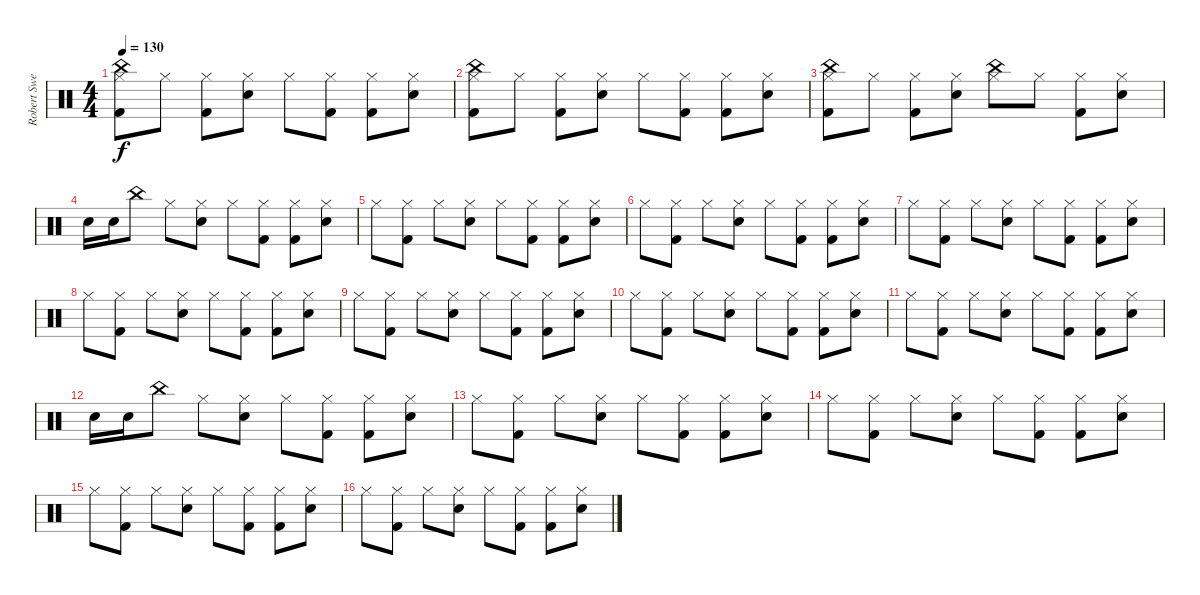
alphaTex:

\track ("Robert Sweet" "Robert Swe") {instrument percussion}
\staff {score}
\articulation defaults
\ts (4 4)
\tempo 130
\clef neutral
\ks c
("Hi-Hat (closed)" "Kick (hit) 2" "China (hit)").8{dy f} "Hi-Hat (closed)".8 ("Hi-Hat (closed)" "Kick (hit) 2").8 ("Hi-Hat (closed)" "Snare (hit) 2").8 "Hi-Hat (closed)".8 ("Hi-Hat (closed)" "Kick (hit) 2").8 ("Hi-Hat (closed)" "Kick (hit) 2").8 ("Hi-Hat (closed)" "Snare (hit) 2").8 |
("Hi-Hat (closed)" "Kick (hit) 2" "China (hit)").8 "Hi-Hat (closed)".8 ("Hi-Hat (closed)" "Kick (hit) 2").8 ("Hi-Hat (closed)" "Snare (hit) 2").8 "Hi-Hat (closed)".8 ("Hi-Hat (closed)" "Kick (hit) 2").8 ("Hi-Hat (closed)" "Kick (hit) 2").8 ("Hi-Hat (closed)" "Snare (hit) 2").8 |
("Hi-Hat (closed)" "Kick (hit) 2" "China (hit)").8 "Hi-Hat (closed)".8 ("Hi-Hat (closed)" "Kick (hit) 2").8 ("Hi-Hat (closed)" "Snare (hit) 2").8 ("Hi-Hat (closed)" "China (hit)").8 "Hi-Hat (closed)".8 ("Hi-Hat (closed)" "Kick (hit) 2").8 ("Hi-Hat (closed)" "Snare (hit) 2").8 |
"Snare (hit) 2".16 "Snare (hit) 2".16 "China (hit)".8 "Hi-Hat (closed)".8 ("Hi-Hat (closed)" "Snare (hit) 2").8 "Hi-Hat (closed)".8 ("Hi-Hat (closed)" "Kick (hit) 2").8 ("Hi-Hat (closed)" "Kick (hit) 2").8 ("Hi-Hat (closed)" "Snare (hit) 2").8 |
"Hi-Hat (closed)".8 ("Hi-Hat (closed)" "Kick (hit) 2").8 "Hi-Hat (closed)".8 ("Hi-Hat (closed)" "Snare (hit) 2").8 "Hi-Hat (closed)".8 ("Hi-Hat (closed)" "Kick (hit) 2").8 ("Hi-Hat (closed)" "Kick (hit) 2").8 ("Hi-Hat (closed)" "Snare (hit) 2").8 |
"Hi-Hat (closed)".8 ("Hi-Hat (closed)" "Kick (hit) 2").8 "Hi-Hat (closed)".8 ("Hi-Hat (closed)" "Snare (hit) 2").8 "Hi-Hat (closed)".8 ("Hi-Hat (closed)" "Kick (hit) 2").8 ("Hi-Hat (closed)" "Kick (hit) 2").8 ("Hi-Hat (closed)" "Snare (hit) 2").8 |
"Hi-Hat (closed)".8 ("Hi-Hat (closed)" "Kick (hit) 2").8 "Hi-Hat (closed)".8 ("Hi-Hat (closed)" "Snare (hit) 2").8 "Hi-Hat (closed)".8 ("Hi-Hat (closed)" "Kick (hit) 2").8 ("Hi-Hat (closed)" "Kick (hit) 2").8 ("Hi-Hat (closed)" "Snare (hit) 2").8 |
"Hi-Hat (closed)".8 ("Hi-Hat (closed)" "Kick (hit) 2").8 "Hi-Hat (closed)".8 ("Hi-Hat (closed)" "Snare (hit) 2").8 "Hi-Hat (closed)".8 ("Hi-Hat (closed)" "Kick (hit) 2").8 ("Hi-Hat (closed)" "Kick (hit) 2").8 ("Hi-Hat (closed)" "Snare (hit) 2").8 |
"Hi-Hat (closed)".8 ("Hi-Hat (closed)" "Kick (hit) 2").8 "Hi-Hat (closed)".8 ("Hi-Hat (closed)" "Snare (hit) 2").8 "Hi-Hat (closed)".8 ("Hi-Hat (closed)" "Kick (hit) 2").8 ("Hi-Hat (closed)" "Kick (hit) 2").8 ("Hi-Hat (closed)" "Snare (hit) 2").8 |
"Hi-Hat (closed)".8 ("Hi-Hat (closed)" "Kick (hit) 2").8 "Hi-Hat (closed)".8 ("Hi-Hat (closed)" "Snare (hit) 2").8 "Hi-Hat (closed)".8 ("Hi-Hat (closed)" "Kick (hit) 2").8 ("Hi-Hat (closed)" "Kick (hit) 2").8 ("Hi-Hat (closed)" "Snare (hit) 2").8 |
"Hi-Hat (closed)".8 ("Hi-Hat (closed)" "Kick (hit) 2").8 "Hi-Hat (closed)".8 ("Hi-Hat (closed)" "Snare (hit) 2").8 "Hi-Hat (closed)".8 ("Hi-Hat (closed)" "Kick (hit) 2").8 ("Hi-Hat (closed)" "Kick (hit) 2").8 ("Hi-Hat (closed)" "Snare (hit) 2").8 |
"Snare (hit) 2".16 "Snare (hit) 2".16 "China (hit)".8 "Hi-Hat (closed)".8 ("Hi-Hat (closed)" "Snare (hit) 2").8 "Hi-Hat (closed)".8 ("Hi-Hat (closed)" "Kick (hit) 2").8 ("Hi-Hat (closed)" "Kick (hit) 2").8 ("Hi-Hat (closed)" "Snare (hit) 2").8 |
"Hi-Hat (closed)".8 ("Hi-Hat (closed)" "Kick (hit) 2").8 "Hi-Hat (closed)".8 ("Hi-Hat (closed)" "Snare (hit) 2").8 "Hi-Hat (closed)".8 ("Hi-Hat (closed)" "Kick (hit) 2").8 ("Hi-Hat (closed)" "Kick (hit) 2").8 ("Hi-Hat (closed)" "Snare (hit) 2").8 |
"Hi-Hat (closed)".8 ("Hi-Hat (closed)" "Kick (hit) 2").8 "Hi-Hat (closed)".8 ("Hi-Hat (closed)" "Snare (hit) 2").8 "Hi-Hat (closed)".8 ("Hi-Hat (closed)" "Kick (hit) 2").8 ("Hi-Hat (closed)" "Kick (hit) 2").8 ("Hi-Hat (closed)" "Snare (hit) 2").8 |
"Hi-Hat (closed)".8 ("Hi-Hat (closed)" "Kick (hit) 2").8 "Hi-Hat (closed)".8 ("Hi-Hat (closed)" "Snare (hit) 2").8 "Hi-Hat (closed)".8 ("Hi-Hat (closed)" "Kick (hit) 2").8 ("Hi-Hat (closed)" "Kick (hit) 2").8 ("Hi-Hat (closed)" "Snare (hit) 2").8 |
"Hi-Hat (closed)".8 ("Hi-Hat (closed)" "Kick (hit) 2").8 "Hi-Hat (closed)".8 ("Hi-Hat (closed)" "Snare (hit) 2").8 "Hi-Hat (closed)".8 ("Hi-Hat (closed)" "Kick (hit) 2").8 ("Hi-Hat (closed)" "Kick (hit) 2").8 ("Hi-Hat (closed)" "Snare (hit) 2").8
